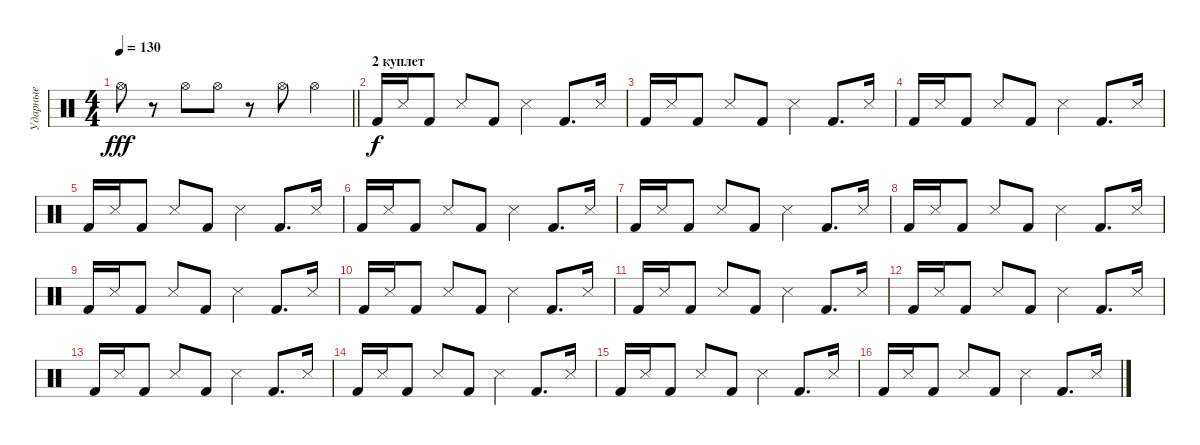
\track ("Ударные" "Ударные") {instrument percussion}
\staff {score}
\articulation defaults
\ts (4 4)
\tempo 130
\clef neutral
\barLineRight lightlight
\ks c "Hi-Hat (open)".8{dy fff}
r.8 "Hi-Hat (open)".8 "Hi-Hat (open)".8 r.8 "Hi-Hat (open)".8 "Hi-Hat (open)".4 |
\section ("" "2 куплет")
"Kick (hit) 2".16{dy f} "Snare (side stick) 3".16 "Kick (hit) 2".8 "Snare (side stick) 3".8 "Kick (hit) 2".8 "Snare (side stick) 3".4 "Kick (hit) 2".8{d} "Snare (side stick) 3".16 |
"Kick (hit) 2".16 "Snare (side stick) 3".16 "Kick (hit) 2".8 "Snare (side stick) 3".8 "Kick (hit) 2".8 "Snare (side stick) 3".4 "Kick (hit) 2".8{d} "Snare (side stick) 3".16 |
"Kick (hit) 2".16 "Snare (side stick) 3".16 "Kick (hit) 2".8 "Snare (side stick) 3".8 "Kick (hit) 2".8 "Snare (side stick) 3".4 "Kick (hit) 2".8{d} "Snare (side stick) 3".16 |
"Kick (hit) 2".16 "Snare (side stick) 3".16 "Kick (hit) 2".8 "Snare (side stick) 3".8 "Kick (hit) 2".8 "Snare (side stick) 3".4 "Kick (hit) 2".8{d} "Snare (side stick) 3".16 |
"Kick (hit) 2".16 "Snare (side stick) 3".16 "Kick (hit) 2".8 "Snare (side stick) 3".8 "Kick (hit) 2".8 "Snare (side stick) 3".4 "Kick (hit) 2".8{d} "Snare (side stick) 3".16 |
"Kick (hit) 2".16 "Snare (side stick) 3".16 "Kick (hit) 2".8 "Snare (side stick) 3".8 "Kick (hit) 2".8 "Snare (side stick) 3".4 "Kick (hit) 2".8{d} "Snare (side stick) 3".16 |
"Kick (hit) 2".16 "Snare (side stick) 3".16 "Kick (hit) 2".8 "Snare (side stick) 3".8 "Kick (hit) 2".8 "Snare (side stick) 3".4 "Kick (hit) 2".8{d} "Snare (side stick) 3".16 |
"Kick (hit) 2".16 "Snare (side stick) 3".16 "Kick (hit) 2".8 "Snare (side stick) 3".8 "Kick (hit) 2".8 "Snare (side stick) 3".4 "Kick (hit) 2".8{d} "Snare (side stick) 3".16 |
"Kick (hit) 2".16 "Snare (side stick) 3".16 "Kick (hit) 2".8 "Snare (side stick) 3".8 "Kick (hit) 2".8 "Snare (side stick) 3".4 "Kick (hit) 2".8{d} "Snare (side stick) 3".16 |
"Kick (hit) 2".16 "Snare (side stick) 3".16 "Kick (hit) 2".8 "Snare (side stick) 3".8 "Kick (hit) 2".8 "Snare (side stick) 3".4 "Kick (hit) 2".8{d} "Snare (side stick) 3".16 |
"Kick (hit) 2".16 "Snare (side stick) 3".16 "Kick (hit) 2".8 "Snare (side stick) 3".8 "Kick (hit) 2".8 "Snare (side stick) 3".4 "Kick (hit) 2".8{d} "Snare (side stick) 3".16 |
"Kick (hit) 2".16 "Snare (side stick) 3".16 "Kick (hit) 2".8 "Snare (side stick) 3".8 "Kick (hit) 2".8 "Snare (side stick) 3".4 "Kick (hit) 2".8{d} "Snare (side stick) 3".16 |
"Kick (hit) 2".16 "Snare (side stick) 3".16 "Kick (hit) 2".8 "Snare (side stick) 3".8 "Kick (hit) 2".8 "Snare (side stick) 3".4 "Kick (hit) 2".8{d} "Snare (side stick) 3".16 |
"Kick (hit) 2".16 "Snare (side stick) 3".16 "Kick (hit) 2".8 "Snare (side stick) 3".8 "Kick (hit) 2".8 "Snare (side stick) 3".4 "Kick (hit) 2".8{d} "Snare (side stick) 3".16 |
"Kick (hit) 2".16 "Snare (side stick) 3".16 "Kick (hit) 2".8 "Snare (side stick) 3".8 "Kick (hit) 2".8 "Snare (side stick) 3".4 "Kick (hit) 2".8{d} "Snare (side stick) 3".16
